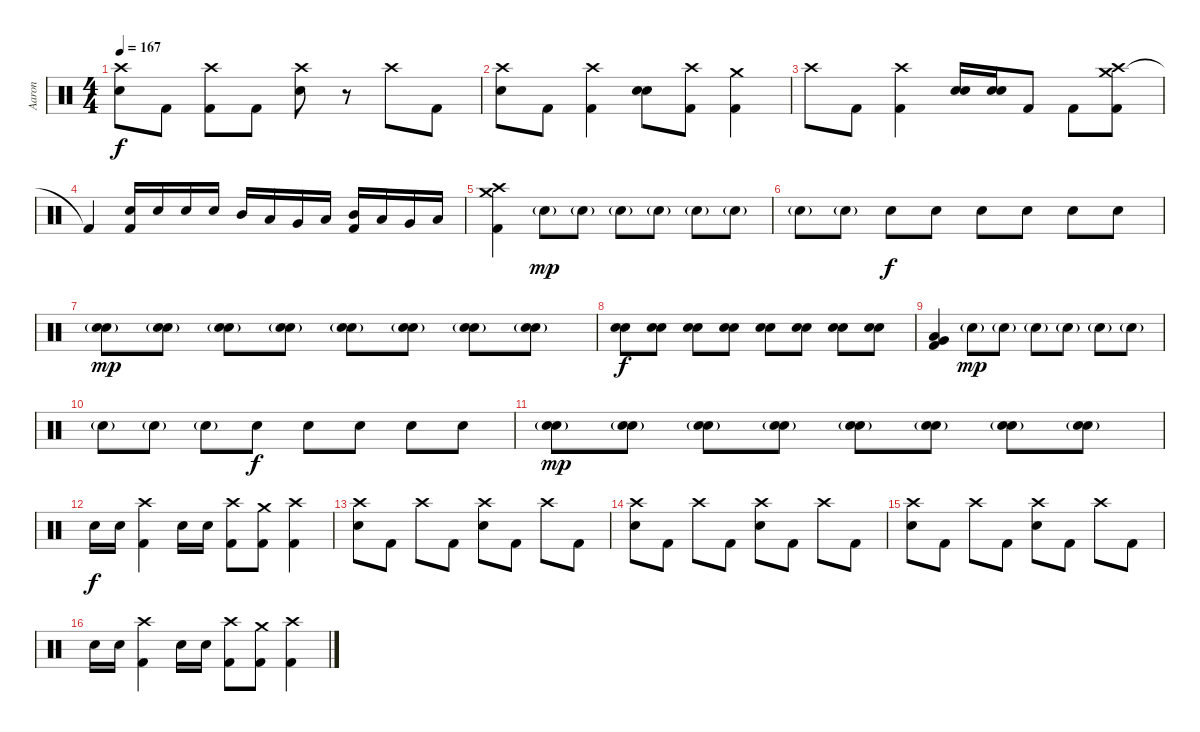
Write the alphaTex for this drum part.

\track ("Aaron" "Aaron") {instrument percussion}
\staff {score}
\articulation defaults
\ts (4 4)
\tempo 167
\clef neutral
\ks c
("Crash high (hit)" "Electric Snare (hit)").8{dy f} "Kick (hit) 2".8 ("Crash high (hit)" "Kick (hit) 2").8 "Kick (hit) 2".8 ("Crash high (hit)" "Electric Snare (hit)").8 r.8 "Crash high (hit)".8 "Kick (hit) 2".8 |
("Crash high (hit)" "Electric Snare (hit)").8 "Kick (hit) 2".8 ("Crash high (hit)" "Kick (hit) 2").4 ("Electric Snare (hit)" "Electric Snare (hit)").8 ("Crash high (hit)" "Kick (hit) 2").8 ("Crash medium (hit)" "Kick (hit) 2").4 |
"Crash high (hit)".8 "Kick (hit) 2".8 ("Crash high (hit)" "Kick (hit) 2").4 ("Electric Snare (hit)" "Electric Snare (hit)").16 ("Electric Snare (hit)" "Electric Snare (hit)").16 "Kick (hit) 2".8 "Kick (hit) 2".8 ("Crash medium (hit)" "Crash high (hit)" "Kick (hit) 2").8 |
"Kick (hit) 2"{t}.4 ("Electric Snare (hit)" "Kick (hit) 2").16 "Electric Snare (hit)".16 "Electric Snare (hit)".16 "Electric Snare (hit)".16 "Mid Tom (hit)".16 "Low Tom (hit)".16 "Very Low Tom (hit)".16 "Low Floor Tom (hit)".16 ("Mid Tom (hit)" "Kick (hit) 2").16 "Low Tom (hit)".16 "Very Low Tom (hit)".16 "Low Floor Tom (hit)".16 |
("Crash medium (hit)" "Crash high (hit)" "Kick (hit) 2").4 "Electric Snare (hit)"{g}.8{dy mp} "Electric Snare (hit)"{g}.8 "Electric Snare (hit)"{g}.8 "Electric Snare (hit)"{g}.8 "Electric Snare (hit)"{g}.8 "Electric Snare (hit)"{g}.8 |
"Electric Snare (hit)"{g}.8 "Electric Snare (hit)"{g}.8 "Electric Snare (hit)".8{dy f} "Electric Snare (hit)".8 "Electric Snare (hit)".8 "Electric Snare (hit)".8 "Electric Snare (hit)".8 "Electric Snare (hit)".8 |
("Electric Snare (hit)"{g} "Electric Snare (hit)").8{dy mp} ("Electric Snare (hit)"{g} "Electric Snare (hit)").8 ("Electric Snare (hit)"{g} "Electric Snare (hit)").8 ("Electric Snare (hit)"{g} "Electric Snare (hit)").8 ("Electric Snare (hit)"{g} "Electric Snare (hit)").8 ("Electric Snare (hit)"{g} "Electric Snare (hit)").8 ("Electric Snare (hit)"{g} "Electric Snare (hit)").8 ("Electric Snare (hit)"{g} "Electric Snare (hit)").8 |
("Electric Snare (hit)" "Electric Snare (hit)").8{dy f} ("Electric Snare (hit)" "Electric Snare (hit)").8 ("Electric Snare (hit)" "Electric Snare (hit)").8 ("Electric Snare (hit)" "Electric Snare (hit)").8 ("Electric Snare (hit)" "Electric Snare (hit)").8 ("Electric Snare (hit)" "Electric Snare (hit)").8 ("Electric Snare (hit)" "Electric Snare (hit)").8 ("Electric Snare (hit)" "Electric Snare (hit)").8 |
("Very Low Tom (hit)" "Low Tom (hit)" "Kick (hit) 2").4 "Electric Snare (hit)"{g}.8{dy mp} "Electric Snare (hit)"{g}.8 "Electric Snare (hit)"{g}.8 "Electric Snare (hit)"{g}.8 "Electric Snare (hit)"{g}.8 "Electric Snare (hit)"{g}.8 |
"Electric Snare (hit)"{g}.8 "Electric Snare (hit)"{g}.8 "Electric Snare (hit)"{g}.8 "Electric Snare (hit)".8{dy f} "Electric Snare (hit)".8 "Electric Snare (hit)".8 "Electric Snare (hit)".8 "Electric Snare (hit)".8 |
("Electric Snare (hit)"{g} "Electric Snare (hit)").8{dy mp} ("Electric Snare (hit)"{g} "Electric Snare (hit)").8 ("Electric Snare (hit)"{g} "Electric Snare (hit)").8 ("Electric Snare (hit)"{g} "Electric Snare (hit)").8 ("Electric Snare (hit)"{g} "Electric Snare (hit)").8 ("Electric Snare (hit)"{g} "Electric Snare (hit)").8 ("Electric Snare (hit)"{g} "Electric Snare (hit)").8 ("Electric Snare (hit)"{g} "Electric Snare (hit)").8 |
"Electric Snare (hit)".16{dy f} "Electric Snare (hit)".16 ("Crash high (hit)" "Kick (hit) 2").4 "Electric Snare (hit)".16 "Electric Snare (hit)".16 ("Crash high (hit)" "Kick (hit) 2").8 ("Crash medium (hit)" "Kick (hit) 2").8 ("Crash high (hit)" "Kick (hit) 2").4 |
("Crash high (hit)" "Electric Snare (hit)").8 "Kick (hit) 2".8 "Crash high (hit)".8 "Kick (hit) 2".8 ("Crash high (hit)" "Electric Snare (hit)").8 "Kick (hit) 2".8 "Crash high (hit)".8 "Kick (hit) 2".8 |
("Crash high (hit)" "Electric Snare (hit)").8 "Kick (hit) 2".8 "Crash high (hit)".8 "Kick (hit) 2".8 ("Crash high (hit)" "Electric Snare (hit)").8 "Kick (hit) 2".8 "Crash high (hit)".8 "Kick (hit) 2".8 |
("Crash high (hit)" "Electric Snare (hit)").8 "Kick (hit) 2".8 "Crash high (hit)".8 "Kick (hit) 2".8 ("Crash high (hit)" "Electric Snare (hit)").8 "Kick (hit) 2".8 "Crash high (hit)".8 "Kick (hit) 2".8 |
"Electric Snare (hit)".16 "Electric Snare (hit)".16 ("Crash high (hit)" "Kick (hit) 2").4 "Electric Snare (hit)".16 "Electric Snare (hit)".16 ("Crash high (hit)" "Kick (hit) 2").8 ("Crash medium (hit)" "Kick (hit) 2").8 ("Crash high (hit)" "Kick (hit) 2").4
